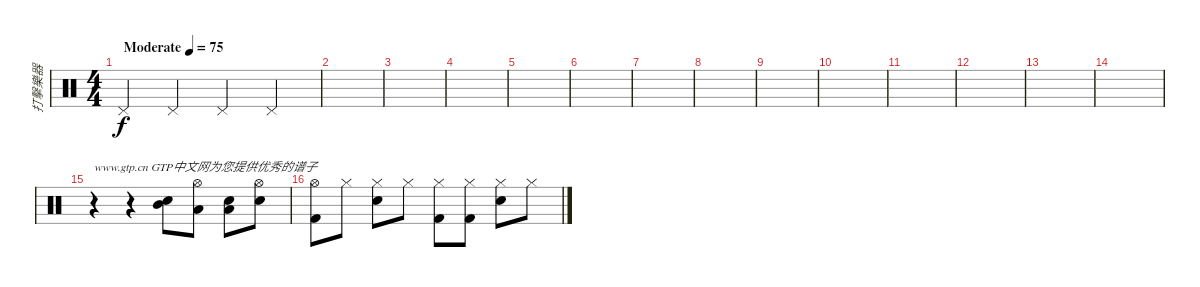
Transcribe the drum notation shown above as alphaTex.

\track ("打擊樂器" "打擊樂器") {instrument percussion}
\staff {score}
\articulation defaults
\ts (4 4)
\tempo (75 "Moderate")
\clef neutral
\ks c "Pedal Hi-Hat (hit)".4{dy f} "Pedal Hi-Hat (hit)".4 "Pedal Hi-Hat (hit)".4 "Pedal Hi-Hat (hit)".4
|
|
|
|
|
|
|
|
|
|
|
|
|
|
r.4{txt "www.gtp.cn GTP中文网为您提供优秀的谱子"} r.4 ("Electric Snare (hit)" "Mid Tom (hit)").8 ("Hi-Hat (open)" "Low Tom (hit)").8 ("Electric Snare (hit)" "Low Tom (hit)").8 ("Electric Snare (hit)" "Hi-Hat (open)").8 |
("Hi-Hat (open)" "Kick (hit) 2").8 "Hi-Hat (closed)".8 ("Hi-Hat (closed)" "Electric Snare (hit)").8 "Hi-Hat (closed)".8 ("Hi-Hat (closed)" "Kick (hit) 2").8 ("Hi-Hat (closed)" "Kick (hit) 2").8 ("Hi-Hat (closed)" "Electric Snare (hit)").8 "Hi-Hat (closed)".8
